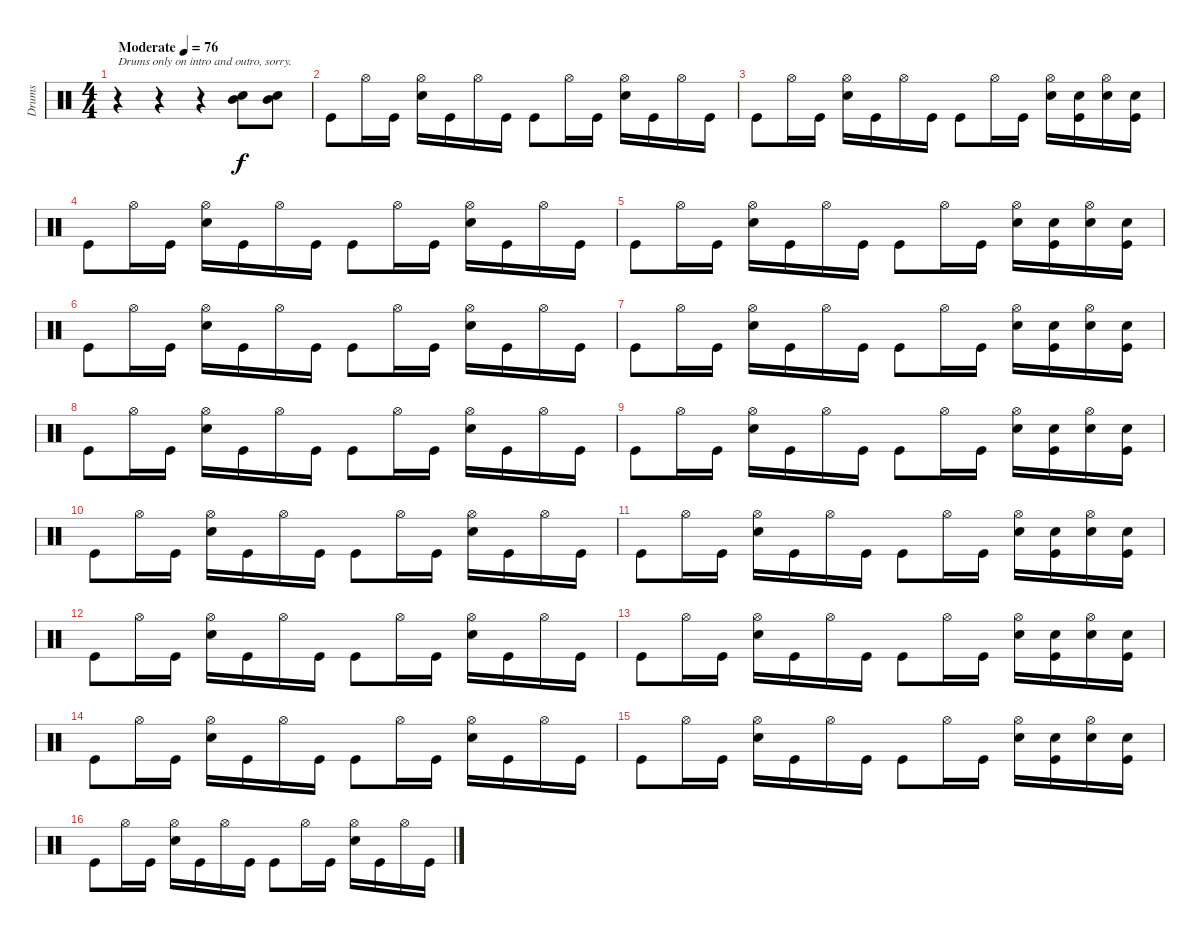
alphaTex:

\track ("Drums" "Drums") {instrument percussion}
\staff {score}
\articulation defaults
\ts (4 4)
\tempo (76 "Moderate")
\clef neutral
\ks c
r.4{txt "Drums only on intro and outro, sorry." dy f} r.4 r.4 ("Snare (hit) 2" "Mid Tom (hit)").8 ("Snare (hit) 2" "Mid Tom (hit)").8 |
"Kick (hit)".8 "Hi-Hat (open)".16 "Kick (hit)".16 ("Hi-Hat (open)" "Snare (hit) 2").16 "Kick (hit)".16 "Hi-Hat (open)".16 "Kick (hit)".16 "Kick (hit)".8 "Hi-Hat (open)".16 "Kick (hit)".16 ("Hi-Hat (open)" "Snare (hit) 2").16 "Kick (hit)".16 "Hi-Hat (open)".16 "Kick (hit)".16 |
"Kick (hit)".8 "Hi-Hat (open)".16 "Kick (hit)".16 ("Hi-Hat (open)" "Snare (hit) 2").16 "Kick (hit)".16 "Hi-Hat (open)".16 "Kick (hit)".16 "Kick (hit)".8 "Hi-Hat (open)".16 "Kick (hit)".16 ("Hi-Hat (open)" "Snare (hit) 2").16 ("Snare (hit) 2" "Kick (hit)").16 ("Hi-Hat (open)" "Snare (hit) 2").16 ("Snare (hit) 2" "Kick (hit)").16 |
"Kick (hit)".8 "Hi-Hat (open)".16 "Kick (hit)".16 ("Hi-Hat (open)" "Snare (hit) 2").16 "Kick (hit)".16 "Hi-Hat (open)".16 "Kick (hit)".16 "Kick (hit)".8 "Hi-Hat (open)".16 "Kick (hit)".16 ("Hi-Hat (open)" "Snare (hit) 2").16 "Kick (hit)".16 "Hi-Hat (open)".16 "Kick (hit)".16 |
"Kick (hit)".8 "Hi-Hat (open)".16 "Kick (hit)".16 ("Hi-Hat (open)" "Snare (hit) 2").16 "Kick (hit)".16 "Hi-Hat (open)".16 "Kick (hit)".16 "Kick (hit)".8 "Hi-Hat (open)".16 "Kick (hit)".16 ("Hi-Hat (open)" "Snare (hit) 2").16 ("Snare (hit) 2" "Kick (hit)").16 ("Hi-Hat (open)" "Snare (hit) 2").16 ("Snare (hit) 2" "Kick (hit)").16 |
"Kick (hit)".8 "Hi-Hat (open)".16 "Kick (hit)".16 ("Hi-Hat (open)" "Snare (hit) 2").16 "Kick (hit)".16 "Hi-Hat (open)".16 "Kick (hit)".16 "Kick (hit)".8 "Hi-Hat (open)".16 "Kick (hit)".16 ("Hi-Hat (open)" "Snare (hit) 2").16 "Kick (hit)".16 "Hi-Hat (open)".16 "Kick (hit)".16 |
"Kick (hit)".8 "Hi-Hat (open)".16 "Kick (hit)".16 ("Hi-Hat (open)" "Snare (hit) 2").16 "Kick (hit)".16 "Hi-Hat (open)".16 "Kick (hit)".16 "Kick (hit)".8 "Hi-Hat (open)".16 "Kick (hit)".16 ("Hi-Hat (open)" "Snare (hit) 2").16 ("Snare (hit) 2" "Kick (hit)").16 ("Hi-Hat (open)" "Snare (hit) 2").16 ("Snare (hit) 2" "Kick (hit)").16 |
"Kick (hit)".8 "Hi-Hat (open)".16 "Kick (hit)".16 ("Hi-Hat (open)" "Snare (hit) 2").16 "Kick (hit)".16 "Hi-Hat (open)".16 "Kick (hit)".16 "Kick (hit)".8 "Hi-Hat (open)".16 "Kick (hit)".16 ("Hi-Hat (open)" "Snare (hit) 2").16 "Kick (hit)".16 "Hi-Hat (open)".16 "Kick (hit)".16 |
"Kick (hit)".8 "Hi-Hat (open)".16 "Kick (hit)".16 ("Hi-Hat (open)" "Snare (hit) 2").16 "Kick (hit)".16 "Hi-Hat (open)".16 "Kick (hit)".16 "Kick (hit)".8 "Hi-Hat (open)".16 "Kick (hit)".16 ("Hi-Hat (open)" "Snare (hit) 2").16 ("Snare (hit) 2" "Kick (hit)").16 ("Hi-Hat (open)" "Snare (hit) 2").16 ("Snare (hit) 2" "Kick (hit)").16 |
"Kick (hit)".8 "Hi-Hat (open)".16 "Kick (hit)".16 ("Hi-Hat (open)" "Snare (hit) 2").16 "Kick (hit)".16 "Hi-Hat (open)".16 "Kick (hit)".16 "Kick (hit)".8 "Hi-Hat (open)".16 "Kick (hit)".16 ("Hi-Hat (open)" "Snare (hit) 2").16 "Kick (hit)".16 "Hi-Hat (open)".16 "Kick (hit)".16 |
"Kick (hit)".8 "Hi-Hat (open)".16 "Kick (hit)".16 ("Hi-Hat (open)" "Snare (hit) 2").16 "Kick (hit)".16 "Hi-Hat (open)".16 "Kick (hit)".16 "Kick (hit)".8 "Hi-Hat (open)".16 "Kick (hit)".16 ("Hi-Hat (open)" "Snare (hit) 2").16 ("Snare (hit) 2" "Kick (hit)").16 ("Hi-Hat (open)" "Snare (hit) 2").16 ("Snare (hit) 2" "Kick (hit)").16 |
"Kick (hit)".8 "Hi-Hat (open)".16 "Kick (hit)".16 ("Hi-Hat (open)" "Snare (hit) 2").16 "Kick (hit)".16 "Hi-Hat (open)".16 "Kick (hit)".16 "Kick (hit)".8 "Hi-Hat (open)".16 "Kick (hit)".16 ("Hi-Hat (open)" "Snare (hit) 2").16 "Kick (hit)".16 "Hi-Hat (open)".16 "Kick (hit)".16 |
"Kick (hit)".8 "Hi-Hat (open)".16 "Kick (hit)".16 ("Hi-Hat (open)" "Snare (hit) 2").16 "Kick (hit)".16 "Hi-Hat (open)".16 "Kick (hit)".16 "Kick (hit)".8 "Hi-Hat (open)".16 "Kick (hit)".16 ("Hi-Hat (open)" "Snare (hit) 2").16 ("Snare (hit) 2" "Kick (hit)").16 ("Hi-Hat (open)" "Snare (hit) 2").16 ("Snare (hit) 2" "Kick (hit)").16 |
"Kick (hit)".8 "Hi-Hat (open)".16 "Kick (hit)".16 ("Hi-Hat (open)" "Snare (hit) 2").16 "Kick (hit)".16 "Hi-Hat (open)".16 "Kick (hit)".16 "Kick (hit)".8 "Hi-Hat (open)".16 "Kick (hit)".16 ("Hi-Hat (open)" "Snare (hit) 2").16 "Kick (hit)".16 "Hi-Hat (open)".16 "Kick (hit)".16 |
"Kick (hit)".8 "Hi-Hat (open)".16 "Kick (hit)".16 ("Hi-Hat (open)" "Snare (hit) 2").16 "Kick (hit)".16 "Hi-Hat (open)".16 "Kick (hit)".16 "Kick (hit)".8 "Hi-Hat (open)".16 "Kick (hit)".16 ("Hi-Hat (open)" "Snare (hit) 2").16 ("Snare (hit) 2" "Kick (hit)").16 ("Hi-Hat (open)" "Snare (hit) 2").16 ("Snare (hit) 2" "Kick (hit)").16 |
"Kick (hit)".8 "Hi-Hat (open)".16 "Kick (hit)".16 ("Hi-Hat (open)" "Snare (hit) 2").16 "Kick (hit)".16 "Hi-Hat (open)".16 "Kick (hit)".16 "Kick (hit)".8 "Hi-Hat (open)".16 "Kick (hit)".16 ("Hi-Hat (open)" "Snare (hit) 2").16 "Kick (hit)".16 "Hi-Hat (open)".16 "Kick (hit)".16
